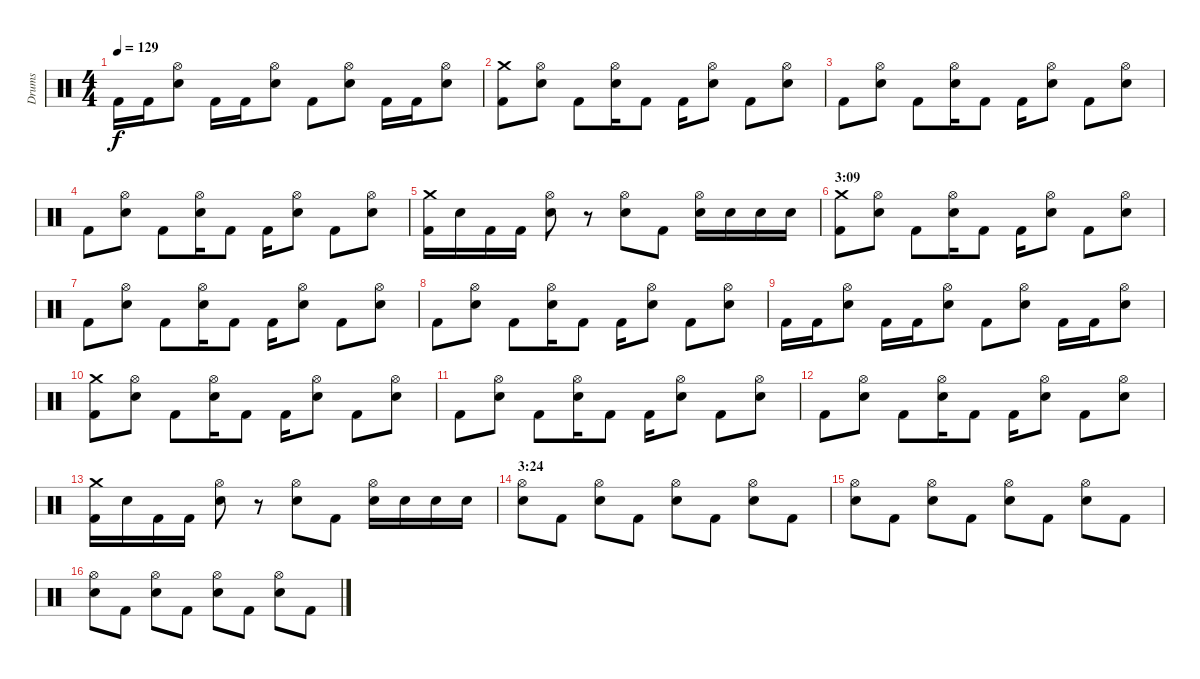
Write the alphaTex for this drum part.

\track ("Drums" "Drums") {instrument percussion}
\staff {score}
\articulation defaults
\ts (4 4)
\tempo 129
\clef neutral
\ks c "Kick (hit) 2".16{dy f} "Kick (hit) 2".16
("Hi-Hat (open)" "Snare (hit) 2").8 "Kick (hit) 2".16 "Kick (hit) 2".16 ("Hi-Hat (open)" "Snare (hit) 2").8 "Kick (hit) 2".8 ("Hi-Hat (open)" "Snare (hit) 2").8 "Kick (hit) 2".16 "Kick (hit) 2".16 ("Hi-Hat (open)" "Snare (hit) 2").8 |
("Crash medium (hit)" "Kick (hit) 2").8 ("Hi-Hat (open)" "Snare (hit) 2").8 "Kick (hit) 2".8 ("Hi-Hat (open)" "Snare (hit) 2").16 "Kick (hit) 2".8 "Kick (hit) 2".16 ("Hi-Hat (open)" "Snare (hit) 2").8 "Kick (hit) 2".8 ("Hi-Hat (open)" "Snare (hit) 2").8 |
"Kick (hit) 2".8 ("Hi-Hat (open)" "Snare (hit) 2").8 "Kick (hit) 2".8 ("Hi-Hat (open)" "Snare (hit) 2").16 "Kick (hit) 2".8 "Kick (hit) 2".16 ("Hi-Hat (open)" "Snare (hit) 2").8 "Kick (hit) 2".8 ("Hi-Hat (open)" "Snare (hit) 2").8 |
"Kick (hit) 2".8 ("Hi-Hat (open)" "Snare (hit) 2").8 "Kick (hit) 2".8 ("Hi-Hat (open)" "Snare (hit) 2").16 "Kick (hit) 2".8 "Kick (hit) 2".16 ("Hi-Hat (open)" "Snare (hit) 2").8 "Kick (hit) 2".8 ("Hi-Hat (open)" "Snare (hit) 2").8 |
("Crash medium (hit)" "Kick (hit) 2").16 "Snare (hit) 2".16 "Kick (hit) 2".16 "Kick (hit) 2".16 ("Hi-Hat (open)" "Snare (hit) 2").8 r.8 ("Hi-Hat (open)" "Snare (hit) 2").8 "Kick (hit) 2".8 ("Hi-Hat (open)" "Snare (hit) 2").16 "Snare (hit) 2".16 "Snare (hit) 2".16 "Snare (hit) 2".16 |
\section ("" "3:09")
("Crash medium (hit)" "Kick (hit) 2").8 ("Hi-Hat (open)" "Snare (hit) 2").8 "Kick (hit) 2".8 ("Hi-Hat (open)" "Snare (hit) 2").16 "Kick (hit) 2".8 "Kick (hit) 2".16 ("Hi-Hat (open)" "Snare (hit) 2").8 "Kick (hit) 2".8 ("Hi-Hat (open)" "Snare (hit) 2").8 |
"Kick (hit) 2".8 ("Hi-Hat (open)" "Snare (hit) 2").8 "Kick (hit) 2".8 ("Hi-Hat (open)" "Snare (hit) 2").16 "Kick (hit) 2".8 "Kick (hit) 2".16 ("Hi-Hat (open)" "Snare (hit) 2").8 "Kick (hit) 2".8 ("Hi-Hat (open)" "Snare (hit) 2").8 |
"Kick (hit) 2".8 ("Hi-Hat (open)" "Snare (hit) 2").8 "Kick (hit) 2".8 ("Hi-Hat (open)" "Snare (hit) 2").16 "Kick (hit) 2".8 "Kick (hit) 2".16 ("Hi-Hat (open)" "Snare (hit) 2").8 "Kick (hit) 2".8 ("Hi-Hat (open)" "Snare (hit) 2").8 |
"Kick (hit) 2".16 "Kick (hit) 2".16 ("Hi-Hat (open)" "Snare (hit) 2").8 "Kick (hit) 2".16 "Kick (hit) 2".16 ("Hi-Hat (open)" "Snare (hit) 2").8 "Kick (hit) 2".8 ("Hi-Hat (open)" "Snare (hit) 2").8 "Kick (hit) 2".16 "Kick (hit) 2".16 ("Hi-Hat (open)" "Snare (hit) 2").8 |
("Crash medium (hit)" "Kick (hit) 2").8 ("Hi-Hat (open)" "Snare (hit) 2").8 "Kick (hit) 2".8 ("Hi-Hat (open)" "Snare (hit) 2").16 "Kick (hit) 2".8 "Kick (hit) 2".16 ("Hi-Hat (open)" "Snare (hit) 2").8 "Kick (hit) 2".8 ("Hi-Hat (open)" "Snare (hit) 2").8 |
"Kick (hit) 2".8 ("Hi-Hat (open)" "Snare (hit) 2").8 "Kick (hit) 2".8 ("Hi-Hat (open)" "Snare (hit) 2").16 "Kick (hit) 2".8 "Kick (hit) 2".16 ("Hi-Hat (open)" "Snare (hit) 2").8 "Kick (hit) 2".8 ("Hi-Hat (open)" "Snare (hit) 2").8 |
"Kick (hit) 2".8 ("Hi-Hat (open)" "Snare (hit) 2").8 "Kick (hit) 2".8 ("Hi-Hat (open)" "Snare (hit) 2").16 "Kick (hit) 2".8 "Kick (hit) 2".16 ("Hi-Hat (open)" "Snare (hit) 2").8 "Kick (hit) 2".8 ("Hi-Hat (open)" "Snare (hit) 2").8 |
("Crash medium (hit)" "Kick (hit) 2").16 "Snare (hit) 2".16 "Kick (hit) 2".16 "Kick (hit) 2".16 ("Hi-Hat (open)" "Snare (hit) 2").8 r.8 ("Hi-Hat (open)" "Snare (hit) 2").8 "Kick (hit) 2".8 ("Hi-Hat (open)" "Snare (hit) 2").16 "Snare (hit) 2".16 "Snare (hit) 2".16 "Snare (hit) 2".16 |
\section ("" "3:24")
("Hi-Hat (open)" "Snare (hit) 2").8 "Kick (hit) 2".8 ("Hi-Hat (open)" "Snare (hit) 2").8 "Kick (hit) 2".8 ("Hi-Hat (open)" "Snare (hit) 2").8 "Kick (hit) 2".8 ("Hi-Hat (open)" "Snare (hit) 2").8 "Kick (hit) 2".8 |
("Hi-Hat (open)" "Snare (hit) 2").8 "Kick (hit) 2".8 ("Hi-Hat (open)" "Snare (hit) 2").8 "Kick (hit) 2".8 ("Hi-Hat (open)" "Snare (hit) 2").8 "Kick (hit) 2".8 ("Hi-Hat (open)" "Snare (hit) 2").8 "Kick (hit) 2".8 |
("Hi-Hat (open)" "Snare (hit) 2").8 "Kick (hit) 2".8 ("Hi-Hat (open)" "Snare (hit) 2").8 "Kick (hit) 2".8 ("Hi-Hat (open)" "Snare (hit) 2").8 "Kick (hit) 2".8 ("Hi-Hat (open)" "Snare (hit) 2").8 "Kick (hit) 2".8
